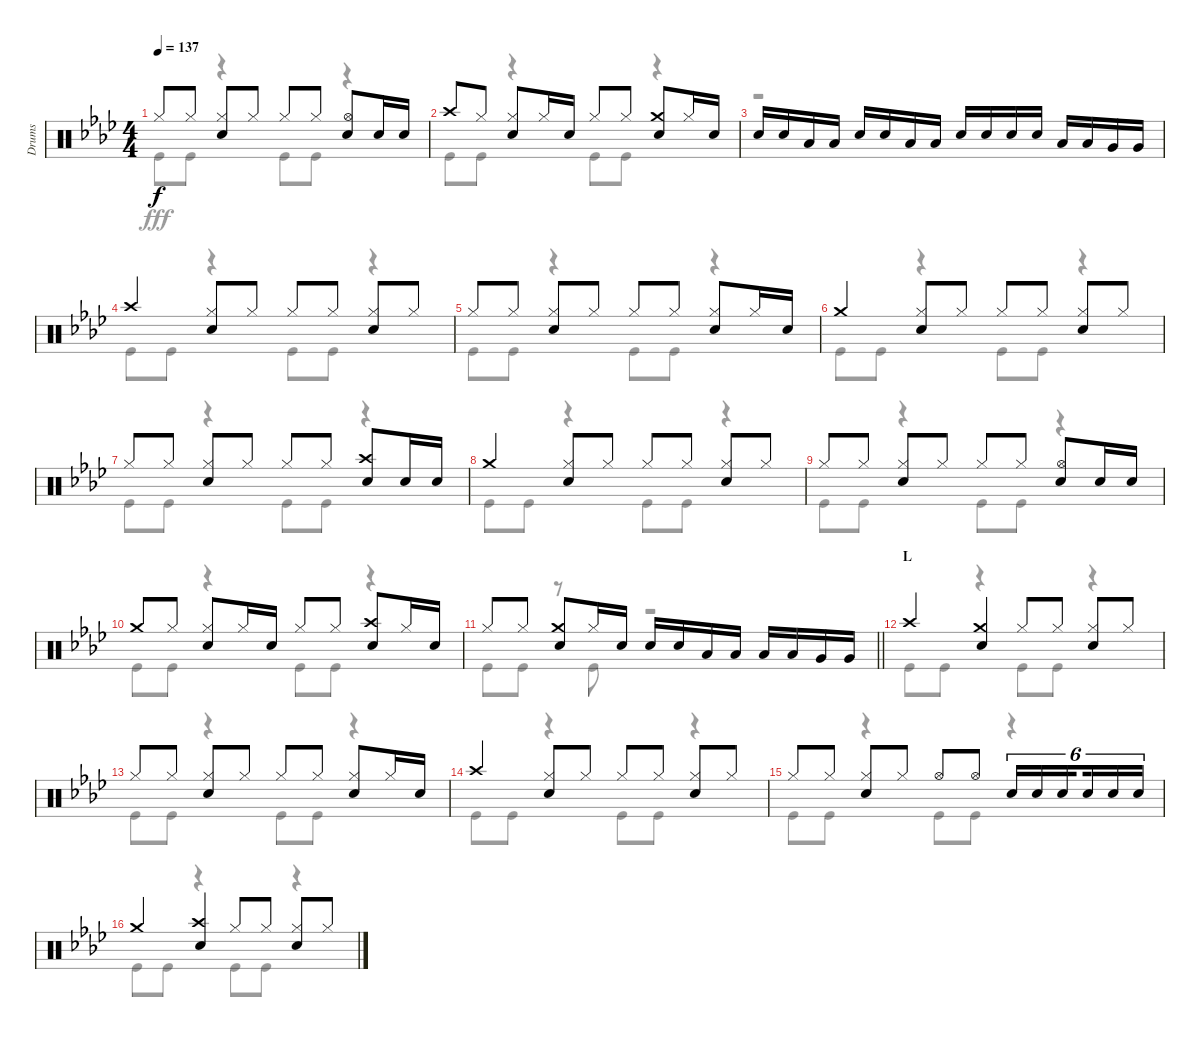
\track ("Drums" "Drums") {instrument percussion}
\staff {score}
\articulation defaults
\voice
\ts (4 4)
\tempo 137
\clef neutral
\ks ab "Hi-Hat (closed)".8{dy f} "Hi-Hat (closed)".8
("Hi-Hat (closed)" "Snare (hit) 2").8 "Hi-Hat (closed)".8 "Hi-Hat (closed)".8 "Hi-Hat (closed)".8 ("Hi-Hat (open)" "Snare (hit) 2").8 "Snare (hit) 2".16 "Snare (hit) 2".16 |
"Crash high (hit)".8 "Hi-Hat (closed)".8 ("Hi-Hat (closed)" "Snare (hit) 2").8 "Hi-Hat (closed)".16 "Snare (hit) 2".16 "Hi-Hat (closed)".8 "Hi-Hat (closed)".8 ("Crash medium (hit)" "Snare (hit) 2").8 "Hi-Hat (closed)".16 "Snare (hit) 2".16 |
"Snare (hit) 2".16 "Snare (hit) 2".16 "Low Tom (hit)".16 "Low Tom (hit)".16 "Snare (hit) 2".16 "Snare (hit) 2".16 "Low Tom (hit)".16 "Low Tom (hit)".16 "Snare (hit) 2".16 "Snare (hit) 2".16 "Snare (hit) 2".16 "Snare (hit) 2".16 "Low Tom (hit)".16 "Low Tom (hit)".16 "Very Low Tom (hit)".16 "Very Low Tom (hit)".16 |
"Crash high (hit)".4 ("Hi-Hat (closed)" "Snare (hit) 2").8 "Hi-Hat (closed)".8 "Hi-Hat (closed)".8 "Hi-Hat (closed)".8 ("Hi-Hat (closed)" "Snare (hit) 2").8 "Hi-Hat (closed)".8 |
"Hi-Hat (closed)".8 "Hi-Hat (closed)".8 ("Hi-Hat (closed)" "Snare (hit) 2").8 "Hi-Hat (closed)".8 "Hi-Hat (closed)".8 "Hi-Hat (closed)".8 ("Hi-Hat (closed)" "Snare (hit) 2").8 "Hi-Hat (closed)".16 "Snare (hit) 2".16 |
"Crash medium (hit)".4 ("Hi-Hat (closed)" "Snare (hit) 2").8 "Hi-Hat (closed)".8 "Hi-Hat (closed)".8 "Hi-Hat (closed)".8 ("Hi-Hat (closed)" "Snare (hit) 2").8 "Hi-Hat (closed)".8 |
"Hi-Hat (closed)".8 "Hi-Hat (closed)".8 ("Hi-Hat (closed)" "Snare (hit) 2").8 "Hi-Hat (closed)".8 "Hi-Hat (closed)".8 "Hi-Hat (closed)".8 ("Crash high (hit)" "Snare (hit) 2").8 "Snare (hit) 2".16 "Snare (hit) 2".16 |
"Crash medium (hit)".4 ("Hi-Hat (closed)" "Snare (hit) 2").8 "Hi-Hat (closed)".8 "Hi-Hat (closed)".8 "Hi-Hat (closed)".8 ("Hi-Hat (closed)" "Snare (hit) 2").8 "Hi-Hat (closed)".8 |
"Hi-Hat (closed)".8 "Hi-Hat (closed)".8 ("Hi-Hat (closed)" "Snare (hit) 2").8 "Hi-Hat (closed)".8 "Hi-Hat (closed)".8 "Hi-Hat (closed)".8 ("Hi-Hat (open)" "Snare (hit) 2").8 "Snare (hit) 2".16 "Snare (hit) 2".16 |
"Crash medium (hit)".8 "Hi-Hat (closed)".8 ("Hi-Hat (closed)" "Snare (hit) 2").8 "Hi-Hat (closed)".16 "Snare (hit) 2".16 "Hi-Hat (closed)".8 "Hi-Hat (closed)".8 ("Crash high (hit)" "Snare (hit) 2").8 "Hi-Hat (closed)".16 "Snare (hit) 2".16 |
\barLineRight lightlight "Hi-Hat (closed)".8 "Hi-Hat (closed)".8
("Crash medium (hit)" "Snare (hit) 2").8 "Hi-Hat (closed)".16 "Snare (hit) 2".16 "Snare (hit) 2".16 "Snare (hit) 2".16 "Low Tom (hit)".16 "Low Tom (hit)".16 "Low Tom (hit)".16 "Low Tom (hit)".16 "Very Low Tom (hit)".16 "Very Low Tom (hit)".16 |
\section ("" "L")
"Crash high (hit)".4 ("Crash medium (hit)" "Snare (hit) 2").4 "Hi-Hat (closed)".8 "Hi-Hat (closed)".8 ("Hi-Hat (closed)" "Snare (hit) 2").8 "Hi-Hat (closed)".8 |
"Hi-Hat (closed)".8 "Hi-Hat (closed)".8 ("Hi-Hat (closed)" "Snare (hit) 2").8 "Hi-Hat (closed)".8 "Hi-Hat (closed)".8 "Hi-Hat (closed)".8 ("Hi-Hat (closed)" "Snare (hit) 2").8 "Hi-Hat (closed)".16 "Snare (hit) 2".16 |
"Crash high (hit)".4 ("Hi-Hat (closed)" "Snare (hit) 2").8 "Hi-Hat (closed)".8 "Hi-Hat (closed)".8 "Hi-Hat (closed)".8 ("Hi-Hat (closed)" "Snare (hit) 2").8 "Hi-Hat (closed)".8 |
"Hi-Hat (closed)".8 "Hi-Hat (closed)".8 ("Hi-Hat (closed)" "Snare (hit) 2").8 "Hi-Hat (closed)".8 "Hi-Hat (open)".8 "Hi-Hat (open)".8 "Snare (hit) 2".16{tu (6 4)} "Snare (hit) 2".16{tu (6 4)} "Snare (hit) 2".16{tu (6 4) beam splitsecondary} "Snare (hit) 2".16{tu (6 4)} "Snare (hit) 2".16{tu (6 4)} "Snare (hit) 2".16{tu (6 4)} |
"Crash medium (hit)".4 ("Crash high (hit)" "Snare (hit) 2").4 "Hi-Hat (closed)".8 "Hi-Hat (closed)".8 ("Hi-Hat (closed)" "Snare (hit) 2").8 "Hi-Hat (closed)".8
\voice
\clef neutral
\ottava regular
\simile none
\ks ab "Kick (hit)".8{dy fff} "Kick (hit)".8
r.4 "Kick (hit)".8 "Kick (hit)".8 r.4 |
"Kick (hit)".8 "Kick (hit)".8 r.4 "Kick (hit)".8 "Kick (hit)".8 r.4 |
r.1 |
"Kick (hit)".8 "Kick (hit)".8 r.4 "Kick (hit)".8 "Kick (hit)".8 r.4 |
"Kick (hit)".8 "Kick (hit)".8 r.4 "Kick (hit)".8 "Kick (hit)".8 r.4 |
"Kick (hit)".8 "Kick (hit)".8 r.4 "Kick (hit)".8 "Kick (hit)".8 r.4 |
"Kick (hit)".8 "Kick (hit)".8 r.4 "Kick (hit)".8 "Kick (hit)".8 r.4 |
"Kick (hit)".8 "Kick (hit)".8 r.4 "Kick (hit)".8 "Kick (hit)".8 r.4 |
"Kick (hit)".8 "Kick (hit)".8 r.4 "Kick (hit)".8 "Kick (hit)".8 r.4 |
"Kick (hit)".8 "Kick (hit)".8 r.4 "Kick (hit)".8 "Kick (hit)".8 r.4 |
\barLineRight lightlight "Kick (hit)".8 "Kick (hit)".8
r.8 "Kick (hit)".8 r.2 |
"Kick (hit)".8 "Kick (hit)".8 r.4 "Kick (hit)".8 "Kick (hit)".8 r.4 |
"Kick (hit)".8 "Kick (hit)".8 r.4 "Kick (hit)".8 "Kick (hit)".8 r.4 |
"Kick (hit)".8 "Kick (hit)".8 r.4 "Kick (hit)".8 "Kick (hit)".8 r.4 |
"Kick (hit)".8 "Kick (hit)".8 r.4 "Kick (hit)".8 "Kick (hit)".8 r.4 |
"Kick (hit)".8 "Kick (hit)".8 r.4 "Kick (hit)".8 "Kick (hit)".8 r.4
